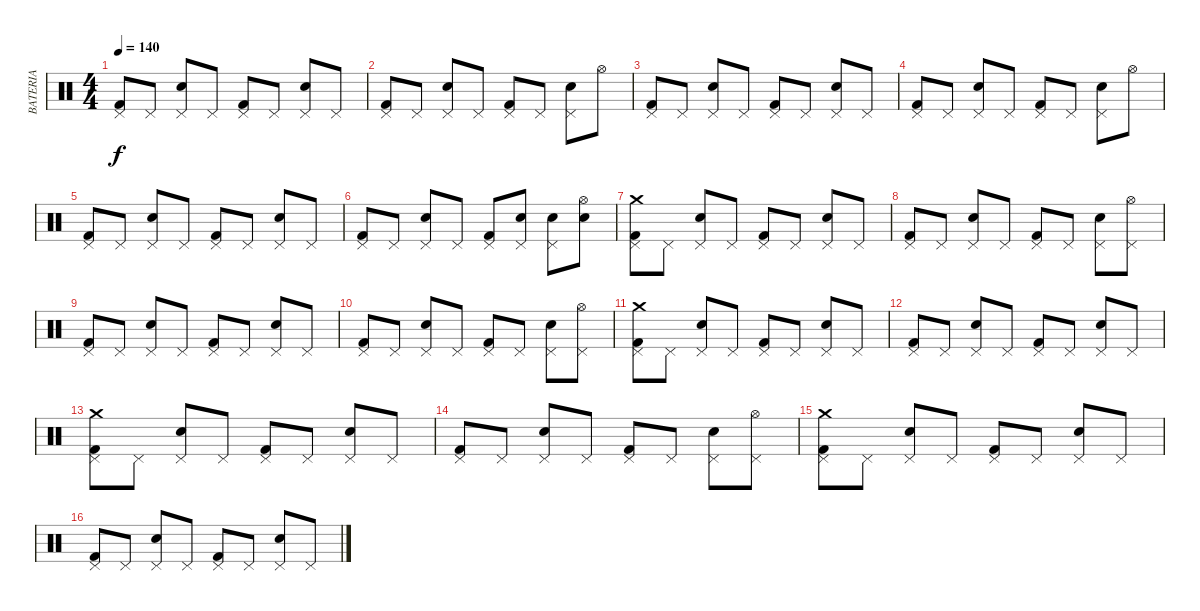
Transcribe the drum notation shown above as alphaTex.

\track ("BATERIA" "BATERIA") {instrument percussion}
\staff {score}
\articulation defaults
\ts (4 4)
\tempo 140
\clef neutral
\ks c
("Kick (hit) 2" "Pedal Hi-Hat (hit)").8{dy f} "Pedal Hi-Hat (hit)".8 ("Snare (hit) 2" "Pedal Hi-Hat (hit)").8 "Pedal Hi-Hat (hit)".8 ("Kick (hit) 2" "Pedal Hi-Hat (hit)").8 "Pedal Hi-Hat (hit)".8 ("Snare (hit) 2" "Pedal Hi-Hat (hit)").8 "Pedal Hi-Hat (hit)".8 |
("Kick (hit) 2" "Pedal Hi-Hat (hit)").8 "Pedal Hi-Hat (hit)".8 ("Snare (hit) 2" "Pedal Hi-Hat (hit)").8 "Pedal Hi-Hat (hit)".8 ("Kick (hit) 2" "Pedal Hi-Hat (hit)").8 "Pedal Hi-Hat (hit)".8 ("Snare (hit) 2" "Pedal Hi-Hat (hit)").8 "Hi-Hat (open)".8 |
("Kick (hit) 2" "Pedal Hi-Hat (hit)").8 "Pedal Hi-Hat (hit)".8 ("Snare (hit) 2" "Pedal Hi-Hat (hit)").8 "Pedal Hi-Hat (hit)".8 ("Kick (hit) 2" "Pedal Hi-Hat (hit)").8 "Pedal Hi-Hat (hit)".8 ("Snare (hit) 2" "Pedal Hi-Hat (hit)").8 "Pedal Hi-Hat (hit)".8 |
("Kick (hit) 2" "Pedal Hi-Hat (hit)").8 "Pedal Hi-Hat (hit)".8 ("Snare (hit) 2" "Pedal Hi-Hat (hit)").8 "Pedal Hi-Hat (hit)".8 ("Kick (hit) 2" "Pedal Hi-Hat (hit)").8 "Pedal Hi-Hat (hit)".8 ("Snare (hit) 2" "Pedal Hi-Hat (hit)").8 "Hi-Hat (open)".8 |
("Kick (hit) 2" "Pedal Hi-Hat (hit)").8 "Pedal Hi-Hat (hit)".8 ("Snare (hit) 2" "Pedal Hi-Hat (hit)").8 "Pedal Hi-Hat (hit)".8 ("Kick (hit) 2" "Pedal Hi-Hat (hit)").8 "Pedal Hi-Hat (hit)".8 ("Snare (hit) 2" "Pedal Hi-Hat (hit)").8 "Pedal Hi-Hat (hit)".8 |
("Kick (hit) 2" "Pedal Hi-Hat (hit)").8 "Pedal Hi-Hat (hit)".8 ("Snare (hit) 2" "Pedal Hi-Hat (hit)").8 "Pedal Hi-Hat (hit)".8 ("Kick (hit) 2" "Pedal Hi-Hat (hit)").8 ("Snare (hit) 2" "Pedal Hi-Hat (hit)").8 ("Snare (hit) 2" "Pedal Hi-Hat (hit)").8 ("Snare (hit) 2" "Hi-Hat (open)").8 |
("Kick (hit) 2" "Pedal Hi-Hat (hit)" "Crash medium (hit)").8 "Pedal Hi-Hat (hit)".8 ("Snare (hit) 2" "Pedal Hi-Hat (hit)").8 "Pedal Hi-Hat (hit)".8 ("Kick (hit) 2" "Pedal Hi-Hat (hit)").8 "Pedal Hi-Hat (hit)".8 ("Snare (hit) 2" "Pedal Hi-Hat (hit)").8 "Pedal Hi-Hat (hit)".8 |
("Kick (hit) 2" "Pedal Hi-Hat (hit)").8 "Pedal Hi-Hat (hit)".8 ("Snare (hit) 2" "Pedal Hi-Hat (hit)").8 "Pedal Hi-Hat (hit)".8 ("Kick (hit) 2" "Pedal Hi-Hat (hit)").8 "Pedal Hi-Hat (hit)".8 ("Snare (hit) 2" "Pedal Hi-Hat (hit)").8 ("Pedal Hi-Hat (hit)" "Hi-Hat (open)").8 |
("Kick (hit) 2" "Pedal Hi-Hat (hit)").8 "Pedal Hi-Hat (hit)".8 ("Snare (hit) 2" "Pedal Hi-Hat (hit)").8 "Pedal Hi-Hat (hit)".8 ("Kick (hit) 2" "Pedal Hi-Hat (hit)").8 "Pedal Hi-Hat (hit)".8 ("Snare (hit) 2" "Pedal Hi-Hat (hit)").8 "Pedal Hi-Hat (hit)".8 |
("Kick (hit) 2" "Pedal Hi-Hat (hit)").8 "Pedal Hi-Hat (hit)".8 ("Snare (hit) 2" "Pedal Hi-Hat (hit)").8 "Pedal Hi-Hat (hit)".8 ("Kick (hit) 2" "Pedal Hi-Hat (hit)").8 "Pedal Hi-Hat (hit)".8 ("Snare (hit) 2" "Pedal Hi-Hat (hit)").8 ("Pedal Hi-Hat (hit)" "Hi-Hat (open)").8 |
("Kick (hit) 2" "Pedal Hi-Hat (hit)" "Crash medium (hit)").8 "Pedal Hi-Hat (hit)".8 ("Snare (hit) 2" "Pedal Hi-Hat (hit)").8 "Pedal Hi-Hat (hit)".8 ("Kick (hit) 2" "Pedal Hi-Hat (hit)").8 "Pedal Hi-Hat (hit)".8 ("Snare (hit) 2" "Pedal Hi-Hat (hit)").8 "Pedal Hi-Hat (hit)".8 |
("Kick (hit) 2" "Pedal Hi-Hat (hit)").8 "Pedal Hi-Hat (hit)".8 ("Snare (hit) 2" "Pedal Hi-Hat (hit)").8 "Pedal Hi-Hat (hit)".8 ("Kick (hit) 2" "Pedal Hi-Hat (hit)").8 "Pedal Hi-Hat (hit)".8 ("Snare (hit) 2" "Pedal Hi-Hat (hit)").8 "Pedal Hi-Hat (hit)".8 |
("Kick (hit) 2" "Pedal Hi-Hat (hit)" "Crash medium (hit)").8 "Pedal Hi-Hat (hit)".8 ("Snare (hit) 2" "Pedal Hi-Hat (hit)").8 "Pedal Hi-Hat (hit)".8 ("Kick (hit) 2" "Pedal Hi-Hat (hit)").8 "Pedal Hi-Hat (hit)".8 ("Snare (hit) 2" "Pedal Hi-Hat (hit)").8 "Pedal Hi-Hat (hit)".8 |
("Kick (hit) 2" "Pedal Hi-Hat (hit)").8 "Pedal Hi-Hat (hit)".8 ("Snare (hit) 2" "Pedal Hi-Hat (hit)").8 "Pedal Hi-Hat (hit)".8 ("Kick (hit) 2" "Pedal Hi-Hat (hit)").8 "Pedal Hi-Hat (hit)".8 ("Snare (hit) 2" "Pedal Hi-Hat (hit)").8 ("Pedal Hi-Hat (hit)" "Hi-Hat (open)").8 |
("Kick (hit) 2" "Pedal Hi-Hat (hit)" "Crash medium (hit)").8 "Pedal Hi-Hat (hit)".8 ("Snare (hit) 2" "Pedal Hi-Hat (hit)").8 "Pedal Hi-Hat (hit)".8 ("Kick (hit) 2" "Pedal Hi-Hat (hit)").8 "Pedal Hi-Hat (hit)".8 ("Snare (hit) 2" "Pedal Hi-Hat (hit)").8 "Pedal Hi-Hat (hit)".8 |
("Kick (hit) 2" "Pedal Hi-Hat (hit)").8 "Pedal Hi-Hat (hit)".8 ("Snare (hit) 2" "Pedal Hi-Hat (hit)").8 "Pedal Hi-Hat (hit)".8 ("Kick (hit) 2" "Pedal Hi-Hat (hit)").8 "Pedal Hi-Hat (hit)".8 ("Snare (hit) 2" "Pedal Hi-Hat (hit)").8 "Pedal Hi-Hat (hit)".8
